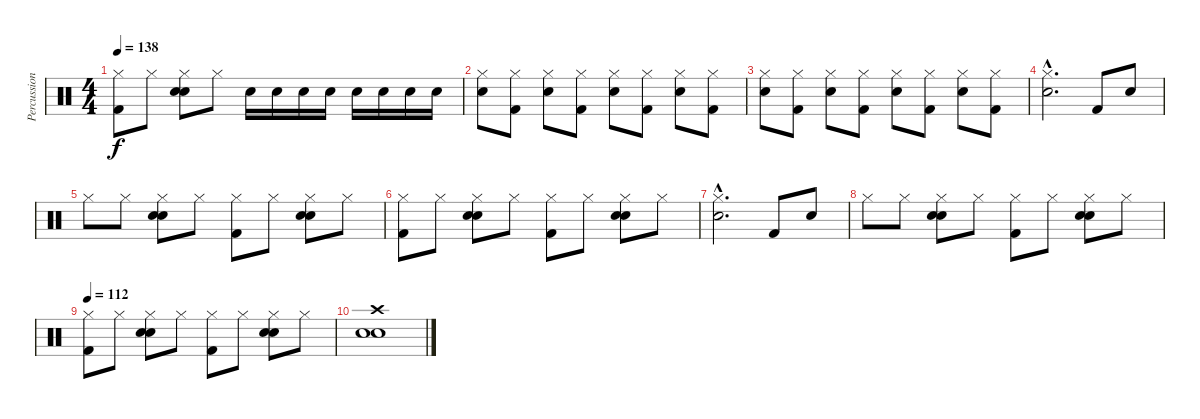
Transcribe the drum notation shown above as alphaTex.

\track ("Percussions" "Percussion") {instrument percussion}
\staff {score}
\articulation defaults
\ts (4 4)
\tempo 138
\clef neutral
\ks c
("Hi-Hat (closed)" "Kick (hit) 2").8{dy f} "Hi-Hat (closed)".8 ("Hi-Hat (closed)" "Snare (hit) 2" "Electric Snare (hit)").8 "Hi-Hat (closed)".8 "Electric Snare (hit)".16 "Electric Snare (hit)".16 "Electric Snare (hit)".16 "Electric Snare (hit)".16 "Electric Snare (hit)".16 "Electric Snare (hit)".16 "Electric Snare (hit)".16 "Electric Snare (hit)".16 |
("Hi-Hat (closed)" "Electric Snare (hit)").8 ("Hi-Hat (closed)" "Kick (hit) 2").8 ("Hi-Hat (closed)" "Electric Snare (hit)").8 ("Hi-Hat (closed)" "Kick (hit) 2").8 ("Hi-Hat (closed)" "Electric Snare (hit)").8 ("Hi-Hat (closed)" "Kick (hit) 2").8 ("Hi-Hat (closed)" "Electric Snare (hit)").8 ("Hi-Hat (closed)" "Kick (hit) 2").8 |
("Hi-Hat (closed)" "Electric Snare (hit)").8 ("Hi-Hat (closed)" "Kick (hit) 2").8 ("Hi-Hat (closed)" "Electric Snare (hit)").8 ("Hi-Hat (closed)" "Kick (hit) 2").8 ("Hi-Hat (closed)" "Electric Snare (hit)").8 ("Hi-Hat (closed)" "Kick (hit) 2").8 ("Hi-Hat (closed)" "Electric Snare (hit)").8 ("Hi-Hat (closed)" "Kick (hit) 2").8 |
("Hi-Hat (closed)"{hac} "Snare (hit) 2"{hac}).2{d} "Kick (hit) 2".8 "Snare (hit) 2".8 |
"Hi-Hat (closed)".8 "Hi-Hat (closed)".8 ("Hi-Hat (closed)" "Snare (hit) 2" "Electric Snare (hit)").8 "Hi-Hat (closed)".8 ("Hi-Hat (closed)" "Kick (hit) 2").8 "Hi-Hat (closed)".8 ("Hi-Hat (closed)" "Snare (hit) 2" "Electric Snare (hit)").8 "Hi-Hat (closed)".8 |
("Hi-Hat (closed)" "Kick (hit) 2").8 "Hi-Hat (closed)".8 ("Hi-Hat (closed)" "Snare (hit) 2" "Electric Snare (hit)").8 "Hi-Hat (closed)".8 ("Hi-Hat (closed)" "Kick (hit) 2").8 "Hi-Hat (closed)".8 ("Hi-Hat (closed)" "Snare (hit) 2" "Electric Snare (hit)").8 "Hi-Hat (closed)".8 |
("Hi-Hat (closed)"{hac} "Snare (hit) 2"{hac}).2{d} "Kick (hit) 2".8 "Snare (hit) 2".8 |
"Hi-Hat (closed)".8 "Hi-Hat (closed)".8 ("Hi-Hat (closed)" "Snare (hit) 2" "Electric Snare (hit)").8 "Hi-Hat (closed)".8 ("Hi-Hat (closed)" "Kick (hit) 2").8 "Hi-Hat (closed)".8 ("Hi-Hat (closed)" "Snare (hit) 2" "Electric Snare (hit)").8 "Hi-Hat (closed)".8 |
\tempo 112
("Hi-Hat (closed)" "Kick (hit) 2").8 "Hi-Hat (closed)".8 ("Hi-Hat (closed)" "Snare (hit) 2" "Electric Snare (hit)").8 "Hi-Hat (closed)".8 ("Hi-Hat (closed)" "Kick (hit) 2").8 "Hi-Hat (closed)".8 ("Hi-Hat (closed)" "Snare (hit) 2" "Electric Snare (hit)").8 "Hi-Hat (closed)".8 |
("Crash high (hit)" "Snare (hit) 2" "Electric Snare (hit)").1
